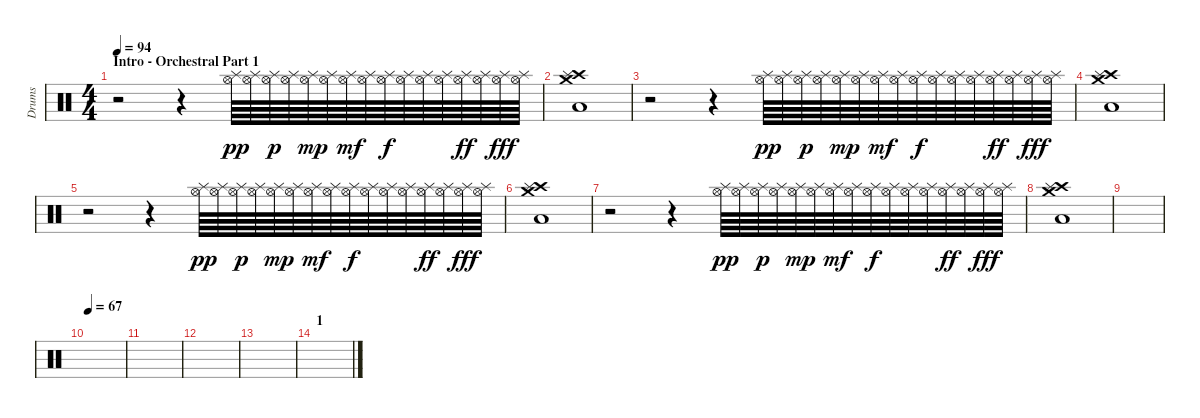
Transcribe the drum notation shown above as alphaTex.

\track ("Drums" "Drums") {instrument percussion}
\staff {score}
\articulation defaults
\ts (4 4)
\section ("" "Intro - Orchestral Part 1")
\tempo 94
\clef neutral
\ks c
r.2{dy pp} r.4 ("Splash (hit)" "Hi-Hat (open)").64 ("Splash (hit)" "Hi-Hat (open)").64 ("Splash (hit)" "Hi-Hat (open)").64{dy p} ("Splash (hit)" "Hi-Hat (open)").64 ("Splash (hit)" "Hi-Hat (open)").64{dy mp} ("Splash (hit)" "Hi-Hat (open)").64 ("Splash (hit)" "Hi-Hat (open)").64{dy mf} ("Splash (hit)" "Hi-Hat (open)").64 ("Splash (hit)" "Hi-Hat (open)").64{dy f} ("Splash (hit)" "Hi-Hat (open)").64 ("Splash (hit)" "Hi-Hat (open)").64 ("Splash (hit)" "Hi-Hat (open)").64 ("Splash (hit)" "Hi-Hat (open)").64{dy ff} ("Splash (hit)" "Hi-Hat (open)").64 ("Splash (hit)" "Hi-Hat (open)").64{dy fff} ("Splash (hit)" "Hi-Hat (open)").64 |
("Crash high (hit)" "Low Tom (hit)" "Splash (hit)" "Crash medium (hit)").1 |
r.2 r.4 ("Splash (hit)" "Hi-Hat (open)").64{dy pp} ("Splash (hit)" "Hi-Hat (open)").64 ("Splash (hit)" "Hi-Hat (open)").64{dy p} ("Splash (hit)" "Hi-Hat (open)").64 ("Splash (hit)" "Hi-Hat (open)").64{dy mp} ("Splash (hit)" "Hi-Hat (open)").64 ("Splash (hit)" "Hi-Hat (open)").64{dy mf} ("Splash (hit)" "Hi-Hat (open)").64 ("Splash (hit)" "Hi-Hat (open)").64{dy f} ("Splash (hit)" "Hi-Hat (open)").64 ("Splash (hit)" "Hi-Hat (open)").64 ("Splash (hit)" "Hi-Hat (open)").64 ("Splash (hit)" "Hi-Hat (open)").64{dy ff} ("Splash (hit)" "Hi-Hat (open)").64 ("Splash (hit)" "Hi-Hat (open)").64{dy fff} ("Splash (hit)" "Hi-Hat (open)").64 |
("Crash high (hit)" "Low Tom (hit)" "Splash (hit)" "Crash medium (hit)").1 |
r.2 r.4 ("Splash (hit)" "Hi-Hat (open)").64{dy pp} ("Splash (hit)" "Hi-Hat (open)").64 ("Splash (hit)" "Hi-Hat (open)").64{dy p} ("Splash (hit)" "Hi-Hat (open)").64 ("Splash (hit)" "Hi-Hat (open)").64{dy mp} ("Splash (hit)" "Hi-Hat (open)").64 ("Splash (hit)" "Hi-Hat (open)").64{dy mf} ("Splash (hit)" "Hi-Hat (open)").64 ("Splash (hit)" "Hi-Hat (open)").64{dy f} ("Splash (hit)" "Hi-Hat (open)").64 ("Splash (hit)" "Hi-Hat (open)").64 ("Splash (hit)" "Hi-Hat (open)").64 ("Splash (hit)" "Hi-Hat (open)").64{dy ff} ("Splash (hit)" "Hi-Hat (open)").64 ("Splash (hit)" "Hi-Hat (open)").64{dy fff} ("Splash (hit)" "Hi-Hat (open)").64 |
("Crash high (hit)" "Low Tom (hit)" "Splash (hit)" "Crash medium (hit)").1 |
r.2 r.4 ("Splash (hit)" "Hi-Hat (open)").64{dy pp} ("Splash (hit)" "Hi-Hat (open)").64 ("Splash (hit)" "Hi-Hat (open)").64{dy p} ("Splash (hit)" "Hi-Hat (open)").64 ("Splash (hit)" "Hi-Hat (open)").64{dy mp} ("Splash (hit)" "Hi-Hat (open)").64 ("Splash (hit)" "Hi-Hat (open)").64{dy mf} ("Splash (hit)" "Hi-Hat (open)").64 ("Splash (hit)" "Hi-Hat (open)").64{dy f} ("Splash (hit)" "Hi-Hat (open)").64 ("Splash (hit)" "Hi-Hat (open)").64 ("Splash (hit)" "Hi-Hat (open)").64 ("Splash (hit)" "Hi-Hat (open)").64{dy ff} ("Splash (hit)" "Hi-Hat (open)").64 ("Splash (hit)" "Hi-Hat (open)").64{dy fff} ("Splash (hit)" "Hi-Hat (open)").64 |
("Crash high (hit)" "Low Tom (hit)" "Splash (hit)" "Crash medium (hit)").1 |
|
\tempo 67
|
|
|
|
\section ("" "1")
